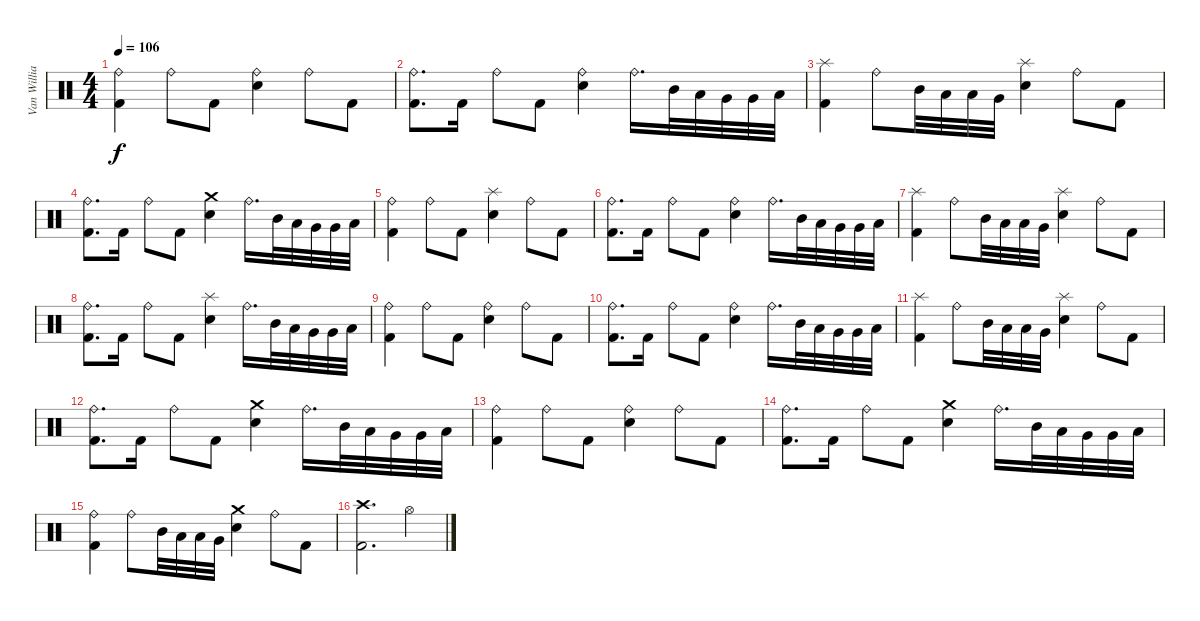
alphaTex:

\track ("Van Williams" "Van Willia") {instrument percussion}
\staff {score}
\articulation defaults
\ts (4 4)
\tempo 106
\clef neutral
\ks c
("Kick (hit) 2" "Ride (bell)").4{dy f} "Ride (bell)".8 "Kick (hit) 2".8 ("Electric Snare (hit)" "Ride (bell)").4 "Ride (bell)".8 "Kick (hit) 2".8 |
("Kick (hit) 2" "Ride (bell)").8{d} "Kick (hit) 2".16 "Ride (bell)".8 "Kick (hit) 2".8 ("Electric Snare (hit)" "Ride (bell)").4 "Ride (bell)".16{d} "Mid Tom (hit)".32 "Low Tom (hit)".32 "Very Low Tom (hit)".32 "Very Low Tom (hit)".32 "Low Floor Tom (hit)".32 |
("Kick (hit) 2" "Splash (hit)").4 "Ride (bell)".8 "Mid Tom (hit)".32 "Low Tom (hit)".32 "Low Tom (hit)".32 "Very Low Tom (hit)".32 ("Electric Snare (hit)" "Splash (hit)").4 "Ride (bell)".8 "Kick (hit) 2".8 |
("Kick (hit) 2" "Ride (bell)").8{d} "Kick (hit) 2".16 "Ride (bell)".8 "Kick (hit) 2".8 ("Electric Snare (hit)" "Crash medium (hit)").4 "Ride (bell)".16{d} "Mid Tom (hit)".32 "Low Tom (hit)".32 "Very Low Tom (hit)".32 "Very Low Tom (hit)".32 "Low Floor Tom (hit)".32 |
("Kick (hit) 2" "Ride (bell)").4 "Ride (bell)".8 "Kick (hit) 2".8 ("Electric Snare (hit)" "Splash (hit)").4 "Ride (bell)".8 "Kick (hit) 2".8 |
("Kick (hit) 2" "Ride (bell)").8{d} "Kick (hit) 2".16 "Ride (bell)".8 "Kick (hit) 2".8 ("Electric Snare (hit)" "Ride (bell)").4 "Ride (bell)".16{d} "Mid Tom (hit)".32 "Low Tom (hit)".32 "Very Low Tom (hit)".32 "Very Low Tom (hit)".32 "Low Floor Tom (hit)".32 |
("Kick (hit) 2" "Splash (hit)").4 "Ride (bell)".8 "Mid Tom (hit)".32 "Low Tom (hit)".32 "Low Tom (hit)".32 "Very Low Tom (hit)".32 ("Electric Snare (hit)" "Splash (hit)").4 "Ride (bell)".8 "Kick (hit) 2".8 |
("Kick (hit) 2" "Ride (bell)").8{d} "Kick (hit) 2".16 "Ride (bell)".8 "Kick (hit) 2".8 ("Electric Snare (hit)" "Splash (hit)").4 "Ride (bell)".16{d} "Mid Tom (hit)".32 "Low Tom (hit)".32 "Very Low Tom (hit)".32 "Very Low Tom (hit)".32 "Low Floor Tom (hit)".32 |
("Kick (hit) 2" "Ride (bell)").4 "Ride (bell)".8 "Kick (hit) 2".8 ("Electric Snare (hit)" "Ride (bell)").4 "Ride (bell)".8 "Kick (hit) 2".8 |
("Kick (hit) 2" "Ride (bell)").8{d} "Kick (hit) 2".16 "Ride (bell)".8 "Kick (hit) 2".8 ("Electric Snare (hit)" "Ride (bell)").4 "Ride (bell)".16{d} "Mid Tom (hit)".32 "Low Tom (hit)".32 "Very Low Tom (hit)".32 "Very Low Tom (hit)".32 "Low Floor Tom (hit)".32 |
("Kick (hit) 2" "Splash (hit)").4 "Ride (bell)".8 "Mid Tom (hit)".32 "Low Tom (hit)".32 "Low Tom (hit)".32 "Very Low Tom (hit)".32 ("Electric Snare (hit)" "Splash (hit)").4 "Ride (bell)".8 "Kick (hit) 2".8 |
("Kick (hit) 2" "Ride (bell)").8{d} "Kick (hit) 2".16 "Ride (bell)".8 "Kick (hit) 2".8 ("Electric Snare (hit)" "Crash medium (hit)").4 "Ride (bell)".16{d} "Mid Tom (hit)".32 "Low Tom (hit)".32 "Very Low Tom (hit)".32 "Very Low Tom (hit)".32 "Low Floor Tom (hit)".32 |
("Kick (hit) 2" "Ride (bell)").4 "Ride (bell)".8 "Kick (hit) 2".8 ("Electric Snare (hit)" "Ride (bell)").4 "Ride (bell)".8 "Kick (hit) 2".8 |
("Kick (hit) 2" "Ride (bell)").8{d} "Kick (hit) 2".16 "Ride (bell)".8 "Kick (hit) 2".8 ("Electric Snare (hit)" "Crash medium (hit)").4 "Ride (bell)".16{d} "Mid Tom (hit)".32 "Low Tom (hit)".32 "Very Low Tom (hit)".32 "Very Low Tom (hit)".32 "Low Floor Tom (hit)".32 |
("Kick (hit) 2" "Ride (bell)").4 "Ride (bell)".8 "Mid Tom (hit)".32 "Low Tom (hit)".32 "Low Tom (hit)".32 "Very Low Tom (hit)".32 ("Electric Snare (hit)" "Crash medium (hit)").4 "Ride (bell)".8 "Kick (hit) 2".8 |
("Kick (hit) 2" "Crash high (hit)").2{d} "Hi-Hat (open)".4
